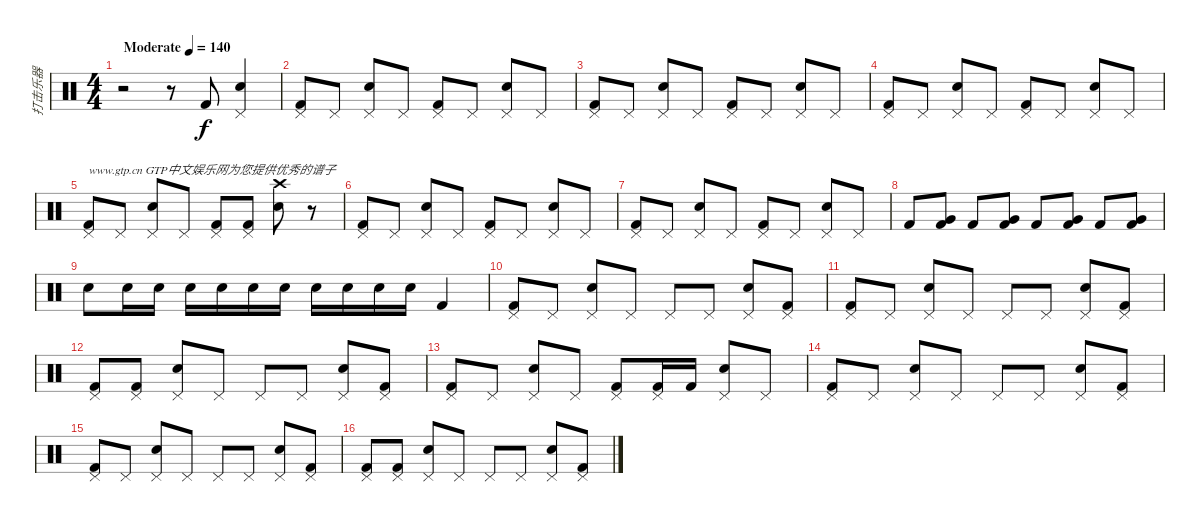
\track ("打击乐器" "打击乐器") {instrument percussion}
\staff {score}
\articulation defaults
\ts (4 4)
\tempo (140 "Moderate")
\clef neutral
\ks c
r.2{dy f} r.8 "Kick (hit) 2".8 ("Pedal Hi-Hat (hit)" "Electric Snare (hit)").4 |
("Pedal Hi-Hat (hit)" "Kick (hit) 2").8 "Pedal Hi-Hat (hit)".8 ("Pedal Hi-Hat (hit)" "Electric Snare (hit)").8 "Pedal Hi-Hat (hit)".8 ("Pedal Hi-Hat (hit)" "Kick (hit) 2").8 "Pedal Hi-Hat (hit)".8 ("Pedal Hi-Hat (hit)" "Electric Snare (hit)").8 "Pedal Hi-Hat (hit)".8 |
("Pedal Hi-Hat (hit)" "Kick (hit) 2").8 "Pedal Hi-Hat (hit)".8 ("Pedal Hi-Hat (hit)" "Electric Snare (hit)").8 "Pedal Hi-Hat (hit)".8 ("Pedal Hi-Hat (hit)" "Kick (hit) 2").8 "Pedal Hi-Hat (hit)".8 ("Pedal Hi-Hat (hit)" "Electric Snare (hit)").8 "Pedal Hi-Hat (hit)".8 |
("Pedal Hi-Hat (hit)" "Kick (hit) 2").8 "Pedal Hi-Hat (hit)".8 ("Pedal Hi-Hat (hit)" "Electric Snare (hit)").8 "Pedal Hi-Hat (hit)".8 ("Pedal Hi-Hat (hit)" "Kick (hit) 2").8 "Pedal Hi-Hat (hit)".8 ("Pedal Hi-Hat (hit)" "Electric Snare (hit)").8 "Pedal Hi-Hat (hit)".8 |
("Pedal Hi-Hat (hit)" "Kick (hit) 2").8{txt "www.gtp.cn GTP中文娱乐网为您提供优秀的谱子"} "Pedal Hi-Hat (hit)".8 ("Pedal Hi-Hat (hit)" "Electric Snare (hit)").8 "Pedal Hi-Hat (hit)".8 ("Pedal Hi-Hat (hit)" "Kick (hit) 2").8 ("Pedal Hi-Hat (hit)" "Kick (hit) 2").8 ("Crash high (hit)" "Electric Snare (hit)").8 r.8 |
("Pedal Hi-Hat (hit)" "Kick (hit) 2").8 "Pedal Hi-Hat (hit)".8 ("Pedal Hi-Hat (hit)" "Electric Snare (hit)").8 "Pedal Hi-Hat (hit)".8 ("Pedal Hi-Hat (hit)" "Kick (hit) 2").8 "Pedal Hi-Hat (hit)".8 ("Pedal Hi-Hat (hit)" "Electric Snare (hit)").8 "Pedal Hi-Hat (hit)".8 |
("Pedal Hi-Hat (hit)" "Kick (hit) 2").8 "Pedal Hi-Hat (hit)".8 ("Pedal Hi-Hat (hit)" "Electric Snare (hit)").8 "Pedal Hi-Hat (hit)".8 ("Pedal Hi-Hat (hit)" "Kick (hit) 2").8 "Pedal Hi-Hat (hit)".8 ("Pedal Hi-Hat (hit)" "Electric Snare (hit)").8 "Pedal Hi-Hat (hit)".8 |
"Kick (hit) 2".8 ("Very Low Tom (hit)" "Kick (hit) 2").8 "Kick (hit) 2".8 ("Very Low Tom (hit)" "Kick (hit) 2").8 "Kick (hit) 2".8 ("Very Low Tom (hit)" "Kick (hit) 2").8 "Kick (hit) 2".8 ("Very Low Tom (hit)" "Kick (hit) 2").8 |
"Electric Snare (hit)".8 "Hand Clap (hit)".16 "Hand Clap (hit)".16 "Hand Clap (hit)".16 "Hand Clap (hit)".16 "Hand Clap (hit)".16 "Hand Clap (hit)".16 "Hand Clap (hit)".16 "Hand Clap (hit)".16 "Hand Clap (hit)".16 "Hand Clap (hit)".16 "Kick (hit) 2".4 |
("Pedal Hi-Hat (hit)" "Kick (hit) 2").8 "Pedal Hi-Hat (hit)".8 ("Pedal Hi-Hat (hit)" "Electric Snare (hit)").8 "Pedal Hi-Hat (hit)".8 "Pedal Hi-Hat (hit)".8 "Pedal Hi-Hat (hit)".8 ("Pedal Hi-Hat (hit)" "Electric Snare (hit)").8 ("Pedal Hi-Hat (hit)" "Kick (hit) 2").8 |
("Pedal Hi-Hat (hit)" "Kick (hit) 2").8 "Pedal Hi-Hat (hit)".8 ("Pedal Hi-Hat (hit)" "Electric Snare (hit)").8 "Pedal Hi-Hat (hit)".8 "Pedal Hi-Hat (hit)".8 "Pedal Hi-Hat (hit)".8 ("Pedal Hi-Hat (hit)" "Electric Snare (hit)").8 ("Pedal Hi-Hat (hit)" "Kick (hit) 2").8 |
("Pedal Hi-Hat (hit)" "Kick (hit) 2").8 ("Pedal Hi-Hat (hit)" "Kick (hit) 2").8 ("Pedal Hi-Hat (hit)" "Electric Snare (hit)").8 "Pedal Hi-Hat (hit)".8 "Pedal Hi-Hat (hit)".8 "Pedal Hi-Hat (hit)".8 ("Pedal Hi-Hat (hit)" "Electric Snare (hit)").8 ("Pedal Hi-Hat (hit)" "Kick (hit) 2").8 |
("Pedal Hi-Hat (hit)" "Kick (hit) 2").8 "Pedal Hi-Hat (hit)".8 ("Pedal Hi-Hat (hit)" "Electric Snare (hit)").8 "Pedal Hi-Hat (hit)".8 ("Pedal Hi-Hat (hit)" "Kick (hit) 2").8 ("Pedal Hi-Hat (hit)" "Kick (hit) 2").16 "Kick (hit) 2".16 ("Pedal Hi-Hat (hit)" "Electric Snare (hit)").8 "Pedal Hi-Hat (hit)".8 |
("Pedal Hi-Hat (hit)" "Kick (hit) 2").8 "Pedal Hi-Hat (hit)".8 ("Pedal Hi-Hat (hit)" "Electric Snare (hit)").8 "Pedal Hi-Hat (hit)".8 "Pedal Hi-Hat (hit)".8 "Pedal Hi-Hat (hit)".8 ("Pedal Hi-Hat (hit)" "Electric Snare (hit)").8 ("Pedal Hi-Hat (hit)" "Kick (hit) 2").8 |
("Pedal Hi-Hat (hit)" "Kick (hit) 2").8 "Pedal Hi-Hat (hit)".8 ("Pedal Hi-Hat (hit)" "Electric Snare (hit)").8 "Pedal Hi-Hat (hit)".8 "Pedal Hi-Hat (hit)".8 "Pedal Hi-Hat (hit)".8 ("Pedal Hi-Hat (hit)" "Electric Snare (hit)").8 ("Pedal Hi-Hat (hit)" "Kick (hit) 2").8 |
("Pedal Hi-Hat (hit)" "Kick (hit) 2").8 ("Pedal Hi-Hat (hit)" "Kick (hit) 2").8 ("Pedal Hi-Hat (hit)" "Electric Snare (hit)").8 "Pedal Hi-Hat (hit)".8 "Pedal Hi-Hat (hit)".8 "Pedal Hi-Hat (hit)".8 ("Pedal Hi-Hat (hit)" "Electric Snare (hit)").8 ("Pedal Hi-Hat (hit)" "Kick (hit) 2").8
